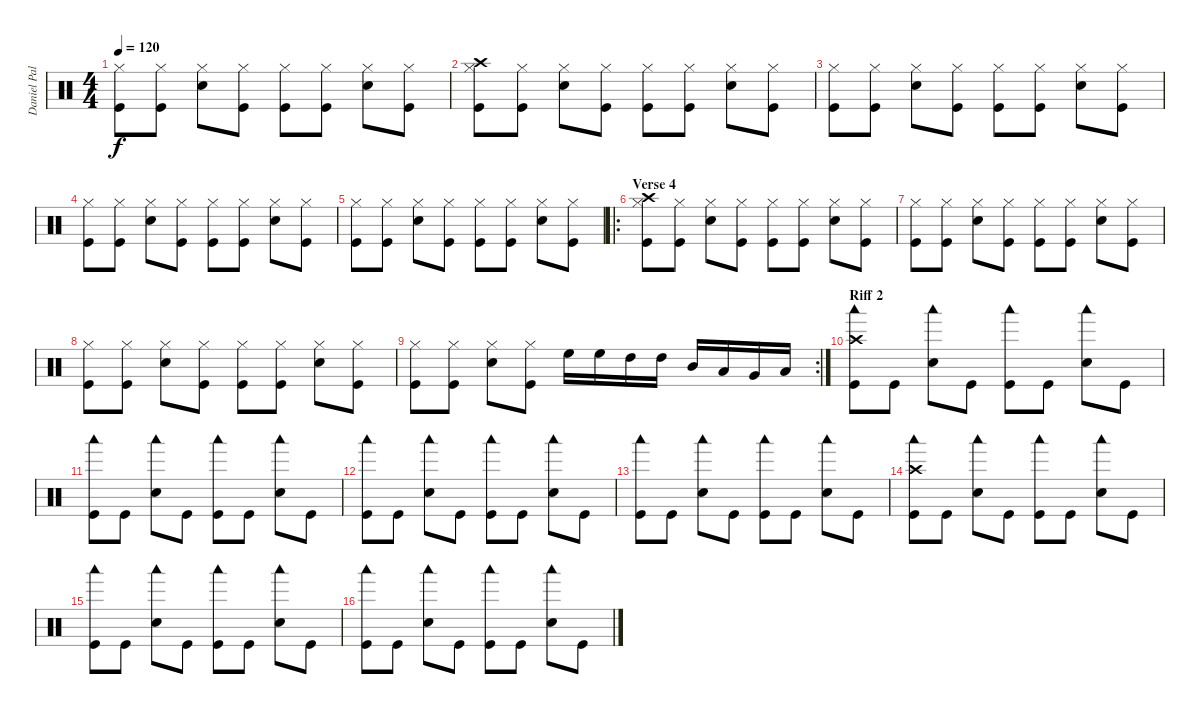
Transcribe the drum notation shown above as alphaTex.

\track ("Daniel Pal" "Daniel Pal") {instrument percussion}
\staff {score}
\articulation defaults
\ts (4 4)
\tempo 120
\clef neutral
\ks c
("Hi-Hat (closed)" "Kick (hit)").8{dy f} ("Hi-Hat (closed)" "Kick (hit)").8 ("Hi-Hat (closed)" "Electric Snare (hit)").8 ("Hi-Hat (closed)" "Kick (hit)").8 ("Hi-Hat (closed)" "Kick (hit)").8 ("Hi-Hat (closed)" "Kick (hit)").8 ("Hi-Hat (closed)" "Electric Snare (hit)").8 ("Hi-Hat (closed)" "Kick (hit)").8 |
("Crash high (hit)" "Hi-Hat (closed)" "Kick (hit)").8 ("Hi-Hat (closed)" "Kick (hit)").8 ("Hi-Hat (closed)" "Electric Snare (hit)").8 ("Hi-Hat (closed)" "Kick (hit)").8 ("Hi-Hat (closed)" "Kick (hit)").8 ("Hi-Hat (closed)" "Kick (hit)").8 ("Hi-Hat (closed)" "Electric Snare (hit)").8 ("Hi-Hat (closed)" "Kick (hit)").8 |
("Hi-Hat (closed)" "Kick (hit)").8 ("Hi-Hat (closed)" "Kick (hit)").8 ("Hi-Hat (closed)" "Electric Snare (hit)").8 ("Hi-Hat (closed)" "Kick (hit)").8 ("Hi-Hat (closed)" "Kick (hit)").8 ("Hi-Hat (closed)" "Kick (hit)").8 ("Hi-Hat (closed)" "Electric Snare (hit)").8 ("Hi-Hat (closed)" "Kick (hit)").8 |
("Hi-Hat (closed)" "Kick (hit)").8 ("Hi-Hat (closed)" "Kick (hit)").8 ("Hi-Hat (closed)" "Electric Snare (hit)").8 ("Hi-Hat (closed)" "Kick (hit)").8 ("Hi-Hat (closed)" "Kick (hit)").8 ("Hi-Hat (closed)" "Kick (hit)").8 ("Hi-Hat (closed)" "Electric Snare (hit)").8 ("Hi-Hat (closed)" "Kick (hit)").8 |
("Hi-Hat (closed)" "Kick (hit)").8 ("Hi-Hat (closed)" "Kick (hit)").8 ("Hi-Hat (closed)" "Electric Snare (hit)").8 ("Hi-Hat (closed)" "Kick (hit)").8 ("Hi-Hat (closed)" "Kick (hit)").8 ("Hi-Hat (closed)" "Kick (hit)").8 ("Hi-Hat (closed)" "Electric Snare (hit)").8 ("Hi-Hat (closed)" "Kick (hit)").8 |
\ro
\section ("" "Verse 4")
("Crash high (hit)" "Hi-Hat (closed)" "Kick (hit)").8 ("Hi-Hat (closed)" "Kick (hit)").8 ("Hi-Hat (closed)" "Electric Snare (hit)").8 ("Hi-Hat (closed)" "Kick (hit)").8 ("Hi-Hat (closed)" "Kick (hit)").8 ("Hi-Hat (closed)" "Kick (hit)").8 ("Hi-Hat (closed)" "Electric Snare (hit)").8 ("Hi-Hat (closed)" "Kick (hit)").8 |
("Hi-Hat (closed)" "Kick (hit)").8 ("Hi-Hat (closed)" "Kick (hit)").8 ("Hi-Hat (closed)" "Electric Snare (hit)").8 ("Hi-Hat (closed)" "Kick (hit)").8 ("Hi-Hat (closed)" "Kick (hit)").8 ("Hi-Hat (closed)" "Kick (hit)").8 ("Hi-Hat (closed)" "Electric Snare (hit)").8 ("Hi-Hat (closed)" "Kick (hit)").8 |
("Hi-Hat (closed)" "Kick (hit)").8 ("Hi-Hat (closed)" "Kick (hit)").8 ("Hi-Hat (closed)" "Electric Snare (hit)").8 ("Hi-Hat (closed)" "Kick (hit)").8 ("Hi-Hat (closed)" "Kick (hit)").8 ("Hi-Hat (closed)" "Kick (hit)").8 ("Hi-Hat (closed)" "Electric Snare (hit)").8 ("Hi-Hat (closed)" "Kick (hit)").8 |
\rc 2
("Hi-Hat (closed)" "Kick (hit)").8 ("Hi-Hat (closed)" "Kick (hit)").8 ("Hi-Hat (closed)" "Electric Snare (hit)").8 ("Hi-Hat (closed)" "Kick (hit)").8 "High Floor Tom (hit)".16 "High Floor Tom (hit)".16 "High Tom (hit)".16 "High Tom (hit)".16 "Mid Tom (hit)".16 "Low Tom (hit)".16 "Very Low Tom (hit)".16 "Low Floor Tom (hit)".16 |
\section ("" "Riff 2")
("Crash high (hit)" "Woodblock low (hit)" "Kick (hit)").8 "Kick (hit)".8 ("Woodblock low (hit)" "Electric Snare (hit)").8 "Kick (hit)".8 ("Woodblock low (hit)" "Kick (hit)").8 "Kick (hit)".8 ("Woodblock low (hit)" "Electric Snare (hit)").8 "Kick (hit)".8 |
("Woodblock low (hit)" "Kick (hit)").8 "Kick (hit)".8 ("Woodblock low (hit)" "Electric Snare (hit)").8 "Kick (hit)".8 ("Woodblock low (hit)" "Kick (hit)").8 "Kick (hit)".8 ("Woodblock low (hit)" "Electric Snare (hit)").8 "Kick (hit)".8 |
("Woodblock low (hit)" "Kick (hit)").8 "Kick (hit)".8 ("Woodblock low (hit)" "Electric Snare (hit)").8 "Kick (hit)".8 ("Woodblock low (hit)" "Kick (hit)").8 "Kick (hit)".8 ("Woodblock low (hit)" "Electric Snare (hit)").8 "Kick (hit)".8 |
("Woodblock low (hit)" "Kick (hit)").8 "Kick (hit)".8 ("Woodblock low (hit)" "Electric Snare (hit)").8 "Kick (hit)".8 ("Woodblock low (hit)" "Kick (hit)").8 "Kick (hit)".8 ("Woodblock low (hit)" "Electric Snare (hit)").8 "Kick (hit)".8 |
("Crash high (hit)" "Woodblock low (hit)" "Kick (hit)").8 "Kick (hit)".8 ("Woodblock low (hit)" "Electric Snare (hit)").8 "Kick (hit)".8 ("Woodblock low (hit)" "Kick (hit)").8 "Kick (hit)".8 ("Woodblock low (hit)" "Electric Snare (hit)").8 "Kick (hit)".8 |
("Woodblock low (hit)" "Kick (hit)").8 "Kick (hit)".8 ("Woodblock low (hit)" "Electric Snare (hit)").8 "Kick (hit)".8 ("Woodblock low (hit)" "Kick (hit)").8 "Kick (hit)".8 ("Woodblock low (hit)" "Electric Snare (hit)").8 "Kick (hit)".8 |
("Woodblock low (hit)" "Kick (hit)").8 "Kick (hit)".8 ("Woodblock low (hit)" "Electric Snare (hit)").8 "Kick (hit)".8 ("Woodblock low (hit)" "Kick (hit)").8 "Kick (hit)".8 ("Woodblock low (hit)" "Electric Snare (hit)").8 "Kick (hit)".8
